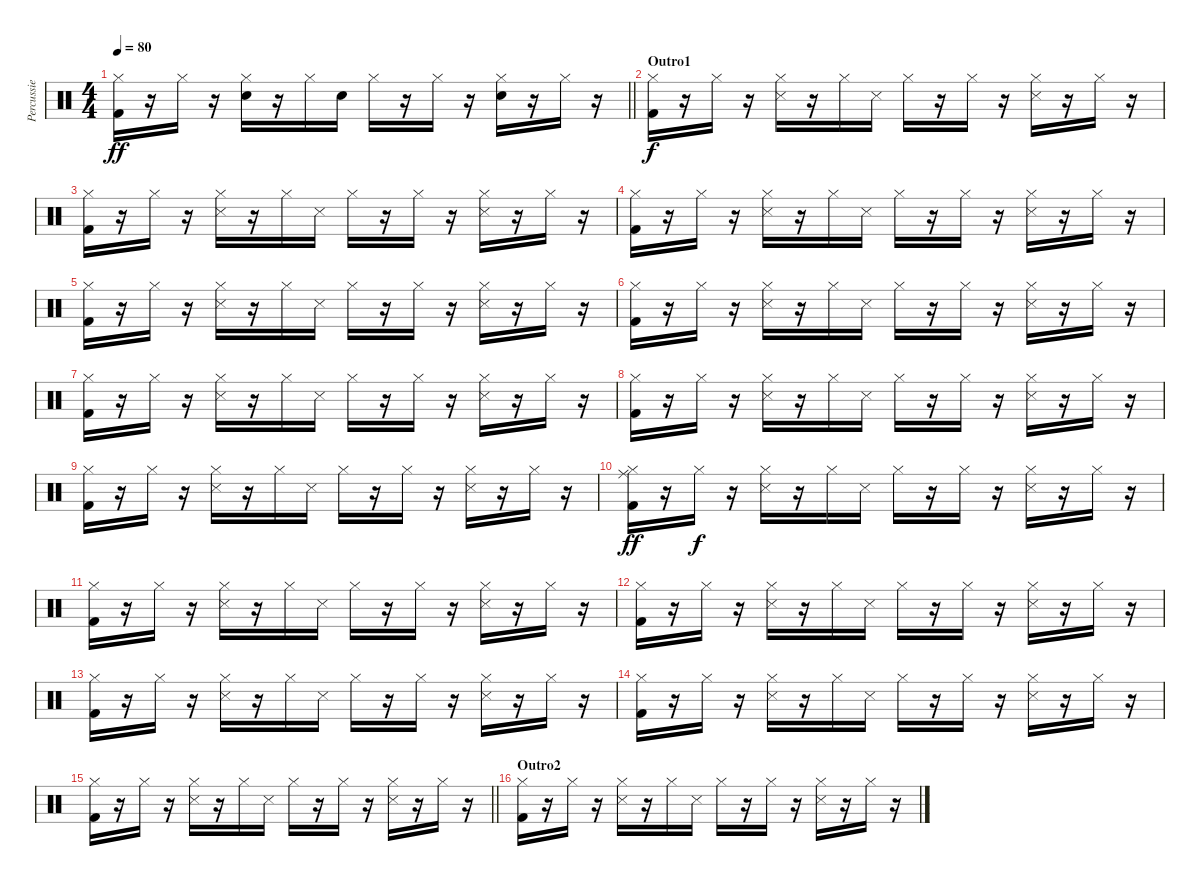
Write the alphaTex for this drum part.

\track ("Percussie" "Percussie") {instrument percussion}
\staff {score}
\articulation defaults
\ts (4 4)
\tempo 80
\clef neutral
\barLineRight lightlight
\ks c
("Kick (hit) 2" "Hi-Hat (closed)").16{dy ff} r.16 "Hi-Hat (closed)".16 r.16 ("Electric Snare (hit)" "Hi-Hat (closed)").16 r.16 "Hi-Hat (closed)".16 "Electric Snare (hit)".16 "Hi-Hat (closed)".16 r.16 "Hi-Hat (closed)".16 r.16 ("Electric Snare (hit)" "Hi-Hat (closed)").16 r.16 "Hi-Hat (closed)".16 r.16 |
\section ("" "Outro1")
("Kick (hit) 2" "Hi-Hat (closed)").16{dy f} r.16 "Hi-Hat (closed)".16 r.16 ("Snare (side stick) 3" "Hi-Hat (closed)").16 r.16 "Hi-Hat (closed)".16 "Snare (side stick) 3".16 "Hi-Hat (closed)".16 r.16 "Hi-Hat (closed)".16 r.16 ("Snare (side stick) 3" "Hi-Hat (closed)").16 r.16 "Hi-Hat (closed)".16 r.16 |
("Kick (hit) 2" "Hi-Hat (closed)").16 r.16 "Hi-Hat (closed)".16 r.16 ("Snare (side stick) 3" "Hi-Hat (closed)").16 r.16 "Hi-Hat (closed)".16 "Snare (side stick) 3".16 "Hi-Hat (closed)".16 r.16 "Hi-Hat (closed)".16 r.16 ("Snare (side stick) 3" "Hi-Hat (closed)").16 r.16 "Hi-Hat (closed)".16 r.16 |
("Kick (hit) 2" "Hi-Hat (closed)").16 r.16 "Hi-Hat (closed)".16 r.16 ("Snare (side stick) 3" "Hi-Hat (closed)").16 r.16 "Hi-Hat (closed)".16 "Snare (side stick) 3".16 "Hi-Hat (closed)".16 r.16 "Hi-Hat (closed)".16 r.16 ("Snare (side stick) 3" "Hi-Hat (closed)").16 r.16 "Hi-Hat (closed)".16 r.16 |
("Kick (hit) 2" "Hi-Hat (closed)").16 r.16 "Hi-Hat (closed)".16 r.16 ("Snare (side stick) 3" "Hi-Hat (closed)").16 r.16 "Hi-Hat (closed)".16 "Snare (side stick) 3".16 "Hi-Hat (closed)".16 r.16 "Hi-Hat (closed)".16 r.16 ("Snare (side stick) 3" "Hi-Hat (closed)").16 r.16 "Hi-Hat (closed)".16 r.16 |
("Kick (hit) 2" "Hi-Hat (closed)").16 r.16 "Hi-Hat (closed)".16 r.16 ("Snare (side stick) 3" "Hi-Hat (closed)").16 r.16 "Hi-Hat (closed)".16 "Snare (side stick) 3".16 "Hi-Hat (closed)".16 r.16 "Hi-Hat (closed)".16 r.16 ("Snare (side stick) 3" "Hi-Hat (closed)").16 r.16 "Hi-Hat (closed)".16 r.16 |
("Kick (hit) 2" "Hi-Hat (closed)").16 r.16 "Hi-Hat (closed)".16 r.16 ("Snare (side stick) 3" "Hi-Hat (closed)").16 r.16 "Hi-Hat (closed)".16 "Snare (side stick) 3".16 "Hi-Hat (closed)".16 r.16 "Hi-Hat (closed)".16 r.16 ("Snare (side stick) 3" "Hi-Hat (closed)").16 r.16 "Hi-Hat (closed)".16 r.16 |
("Kick (hit) 2" "Hi-Hat (closed)").16 r.16 "Hi-Hat (closed)".16 r.16 ("Snare (side stick) 3" "Hi-Hat (closed)").16 r.16 "Hi-Hat (closed)".16 "Snare (side stick) 3".16 "Hi-Hat (closed)".16 r.16 "Hi-Hat (closed)".16 r.16 ("Snare (side stick) 3" "Hi-Hat (closed)").16 r.16 "Hi-Hat (closed)".16 r.16 |
("Kick (hit) 2" "Hi-Hat (closed)").16 r.16 "Hi-Hat (closed)".16 r.16 ("Snare (side stick) 3" "Hi-Hat (closed)").16 r.16 "Hi-Hat (closed)".16 "Snare (side stick) 3".16 "Hi-Hat (closed)".16 r.16 "Hi-Hat (closed)".16 r.16 ("Snare (side stick) 3" "Hi-Hat (closed)").16 r.16 "Hi-Hat (closed)".16 r.16 |
("Kick (hit) 2" "Hi-Hat (closed)" "Ride (middle)").16{dy ff} r.16 "Hi-Hat (closed)".16{dy f} r.16 ("Snare (side stick) 3" "Hi-Hat (closed)").16 r.16 "Hi-Hat (closed)".16 "Snare (side stick) 3".16 "Hi-Hat (closed)".16 r.16 "Hi-Hat (closed)".16 r.16 ("Snare (side stick) 3" "Hi-Hat (closed)").16 r.16 "Hi-Hat (closed)".16 r.16 |
("Kick (hit) 2" "Hi-Hat (closed)").16 r.16 "Hi-Hat (closed)".16 r.16 ("Snare (side stick) 3" "Hi-Hat (closed)").16 r.16 "Hi-Hat (closed)".16 "Snare (side stick) 3".16 "Hi-Hat (closed)".16 r.16 "Hi-Hat (closed)".16 r.16 ("Snare (side stick) 3" "Hi-Hat (closed)").16 r.16 "Hi-Hat (closed)".16 r.16 |
("Kick (hit) 2" "Hi-Hat (closed)").16 r.16 "Hi-Hat (closed)".16 r.16 ("Snare (side stick) 3" "Hi-Hat (closed)").16 r.16 "Hi-Hat (closed)".16 "Snare (side stick) 3".16 "Hi-Hat (closed)".16 r.16 "Hi-Hat (closed)".16 r.16 ("Snare (side stick) 3" "Hi-Hat (closed)").16 r.16 "Hi-Hat (closed)".16 r.16 |
("Kick (hit) 2" "Hi-Hat (closed)").16 r.16 "Hi-Hat (closed)".16 r.16 ("Snare (side stick) 3" "Hi-Hat (closed)").16 r.16 "Hi-Hat (closed)".16 "Snare (side stick) 3".16 "Hi-Hat (closed)".16 r.16 "Hi-Hat (closed)".16 r.16 ("Snare (side stick) 3" "Hi-Hat (closed)").16 r.16 "Hi-Hat (closed)".16 r.16 |
("Kick (hit) 2" "Hi-Hat (closed)").16 r.16 "Hi-Hat (closed)".16 r.16 ("Snare (side stick) 3" "Hi-Hat (closed)").16 r.16 "Hi-Hat (closed)".16 "Snare (side stick) 3".16 "Hi-Hat (closed)".16 r.16 "Hi-Hat (closed)".16 r.16 ("Snare (side stick) 3" "Hi-Hat (closed)").16 r.16 "Hi-Hat (closed)".16 r.16 |
\barLineRight lightlight
("Kick (hit) 2" "Hi-Hat (closed)").16 r.16 "Hi-Hat (closed)".16 r.16 ("Snare (side stick) 3" "Hi-Hat (closed)").16 r.16 "Hi-Hat (closed)".16 "Snare (side stick) 3".16 "Hi-Hat (closed)".16 r.16 "Hi-Hat (closed)".16 r.16 ("Snare (side stick) 3" "Hi-Hat (closed)").16 r.16 "Hi-Hat (closed)".16 r.16 |
\section ("" "Outro2")
("Kick (hit) 2" "Hi-Hat (closed)").16 r.16 "Hi-Hat (closed)".16 r.16 ("Snare (side stick) 3" "Hi-Hat (closed)").16 r.16 "Hi-Hat (closed)".16 "Snare (side stick) 3".16 "Hi-Hat (closed)".16 r.16 "Hi-Hat (closed)".16 r.16 ("Snare (side stick) 3" "Hi-Hat (closed)").16 r.16 "Hi-Hat (closed)".16 r.16
